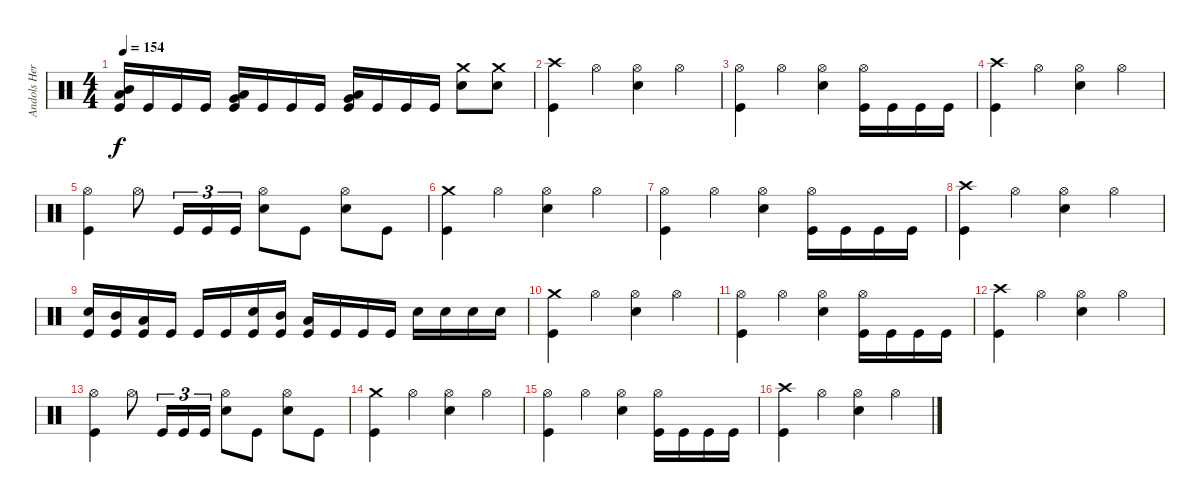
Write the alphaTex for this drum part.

\track ("Andols Herrick" "Andols Her") {instrument percussion}
\staff
\articulation defaults
\ts (4 4)
\tempo 154
\clef neutral
\ks c
("Mid Tom (hit)" "Low Tom (hit)" "Kick (hit)").16{dy f} "Kick (hit)".16 "Kick (hit)".16 "Kick (hit)".16 ("Low Tom (hit)" "Very Low Tom (hit)" "Kick (hit)").16 "Kick (hit)".16 "Kick (hit)".16 "Kick (hit)".16 ("Very Low Tom (hit)" "Low Floor Tom (hit)" "Kick (hit)").16 "Kick (hit)".16 "Kick (hit)".16 "Kick (hit)".16 ("Crash medium (hit)" "Electric Snare (hit)").8 ("Crash medium (hit)" "Electric Snare (hit)").8 |
("Crash high (hit)" "Kick (hit)").4 "Hi-Hat (open)".4 ("Hi-Hat (open)" "Electric Snare (hit)").4 "Hi-Hat (open)".4 |
("Hi-Hat (open)" "Kick (hit)").4 "Hi-Hat (open)".4 ("Hi-Hat (open)" "Electric Snare (hit)").4 ("Hi-Hat (open)" "Kick (hit)").16 "Kick (hit)".16 "Kick (hit)".16 "Kick (hit)".16 |
("Crash high (hit)" "Kick (hit)").4 "Hi-Hat (open)".4 ("Hi-Hat (open)" "Electric Snare (hit)").4 "Hi-Hat (open)".4 |
("Hi-Hat (open)" "Kick (hit)").4 "Hi-Hat (open)".8 "Kick (hit)".16{tu (3 2)} "Kick (hit)".16{tu (3 2)} "Kick (hit)".16{tu (3 2)} ("Hi-Hat (open)" "Electric Snare (hit)").8 "Kick (hit)".8 ("Hi-Hat (open)" "Electric Snare (hit)").8 "Kick (hit)".8 |
("Crash medium (hit)" "Kick (hit)").4 "Hi-Hat (open)".4 ("Hi-Hat (open)" "Electric Snare (hit)").4 "Hi-Hat (open)".4 |
("Hi-Hat (open)" "Kick (hit)").4 "Hi-Hat (open)".4 ("Hi-Hat (open)" "Electric Snare (hit)").4 ("Hi-Hat (open)" "Kick (hit)").16 "Kick (hit)".16 "Kick (hit)".16 "Kick (hit)".16 |
("Crash high (hit)" "Kick (hit)").4 "Hi-Hat (open)".4 ("Hi-Hat (open)" "Electric Snare (hit)").4 "Hi-Hat (open)".4 |
("Electric Snare (hit)" "Kick (hit)").16 ("Mid Tom (hit)" "Kick (hit)").16 ("Low Tom (hit)" "Kick (hit)").16 "Kick (hit)".16 "Kick (hit)".16 "Kick (hit)".16 ("Electric Snare (hit)" "Kick (hit)").16 ("Mid Tom (hit)" "Kick (hit)").16 ("Low Tom (hit)" "Kick (hit)").16 "Kick (hit)".16 "Kick (hit)".16 "Kick (hit)".16 "Electric Snare (hit)".16 "Electric Snare (hit)".16 "Electric Snare (hit)".16 "Electric Snare (hit)".16 |
("Crash medium (hit)" "Kick (hit)").4 "Hi-Hat (open)".4 ("Hi-Hat (open)" "Electric Snare (hit)").4 "Hi-Hat (open)".4 |
("Hi-Hat (open)" "Kick (hit)").4 "Hi-Hat (open)".4 ("Hi-Hat (open)" "Electric Snare (hit)").4 ("Hi-Hat (open)" "Kick (hit)").16 "Kick (hit)".16 "Kick (hit)".16 "Kick (hit)".16 |
("Crash high (hit)" "Kick (hit)").4 "Hi-Hat (open)".4 ("Hi-Hat (open)" "Electric Snare (hit)").4 "Hi-Hat (open)".4 |
("Hi-Hat (open)" "Kick (hit)").4 "Hi-Hat (open)".8 "Kick (hit)".16{tu (3 2)} "Kick (hit)".16{tu (3 2)} "Kick (hit)".16{tu (3 2)} ("Hi-Hat (open)" "Electric Snare (hit)").8 "Kick (hit)".8 ("Hi-Hat (open)" "Electric Snare (hit)").8 "Kick (hit)".8 |
("Crash medium (hit)" "Kick (hit)").4 "Hi-Hat (open)".4 ("Hi-Hat (open)" "Electric Snare (hit)").4 "Hi-Hat (open)".4 |
("Hi-Hat (open)" "Kick (hit)").4 "Hi-Hat (open)".4 ("Hi-Hat (open)" "Electric Snare (hit)").4 ("Hi-Hat (open)" "Kick (hit)").16 "Kick (hit)".16 "Kick (hit)".16 "Kick (hit)".16 |
("Crash high (hit)" "Kick (hit)").4 "Hi-Hat (open)".4 ("Hi-Hat (open)" "Electric Snare (hit)").4 "Hi-Hat (open)".4
